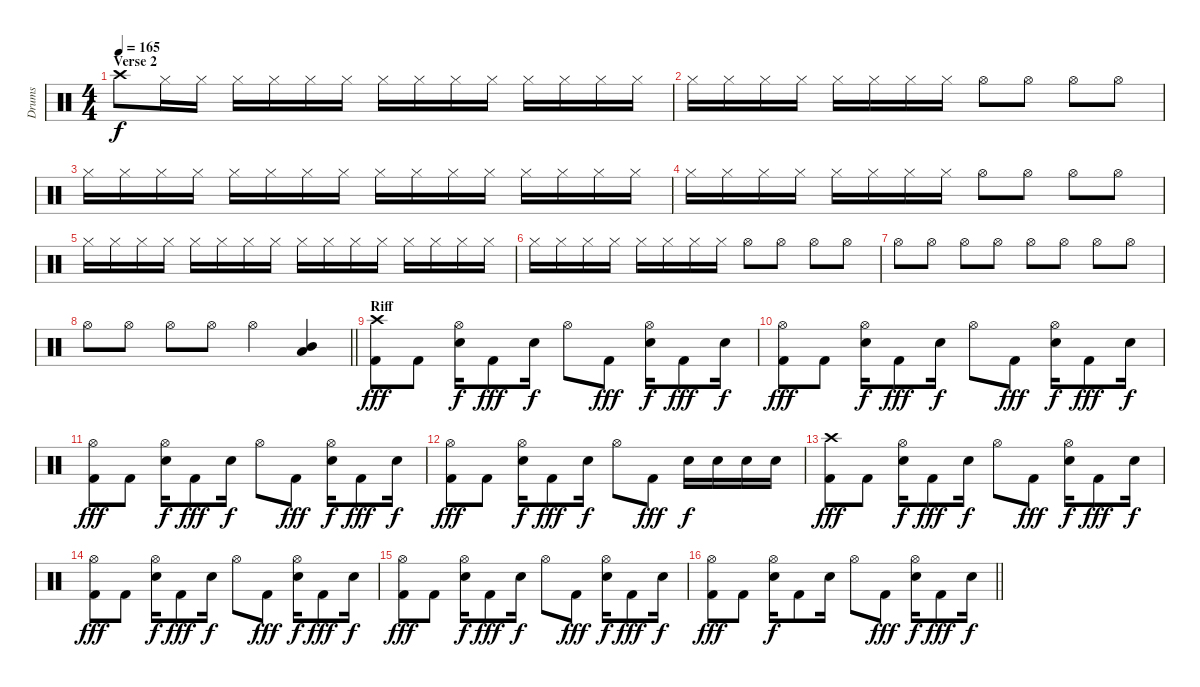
\track ("Drums" "Drums") {instrument percussion}
\staff {score}
\articulation defaults
\ts (4 4)
\section ("" "Verse 2")
\tempo 165
\clef neutral
\ks c "Crash high (hit)".8{dy f} "Hi-Hat (closed)".16 "Hi-Hat (closed)".16 "Hi-Hat (closed)".16 "Hi-Hat (closed)".16 "Hi-Hat (closed)".16 "Hi-Hat (closed)".16 "Hi-Hat (closed)".16 "Hi-Hat (closed)".16 "Hi-Hat (closed)".16 "Hi-Hat (closed)".16 "Hi-Hat (closed)".16 "Hi-Hat (closed)".16 "Hi-Hat (closed)".16 "Hi-Hat (closed)".16
|
"Hi-Hat (closed)".16 "Hi-Hat (closed)".16 "Hi-Hat (closed)".16 "Hi-Hat (closed)".16 "Hi-Hat (closed)".16 "Hi-Hat (closed)".16 "Hi-Hat (closed)".16 "Hi-Hat (closed)".16 "Hi-Hat (open)".8 "Hi-Hat (open)".8 "Hi-Hat (open)".8 "Hi-Hat (open)".8 |
"Hi-Hat (closed)".16 "Hi-Hat (closed)".16 "Hi-Hat (closed)".16 "Hi-Hat (closed)".16 "Hi-Hat (closed)".16 "Hi-Hat (closed)".16 "Hi-Hat (closed)".16 "Hi-Hat (closed)".16 "Hi-Hat (closed)".16 "Hi-Hat (closed)".16 "Hi-Hat (closed)".16 "Hi-Hat (closed)".16 "Hi-Hat (closed)".16 "Hi-Hat (closed)".16 "Hi-Hat (closed)".16 "Hi-Hat (closed)".16 |
"Hi-Hat (closed)".16 "Hi-Hat (closed)".16 "Hi-Hat (closed)".16 "Hi-Hat (closed)".16 "Hi-Hat (closed)".16 "Hi-Hat (closed)".16 "Hi-Hat (closed)".16 "Hi-Hat (closed)".16 "Hi-Hat (open)".8 "Hi-Hat (open)".8 "Hi-Hat (open)".8 "Hi-Hat (open)".8 |
"Hi-Hat (closed)".16 "Hi-Hat (closed)".16 "Hi-Hat (closed)".16 "Hi-Hat (closed)".16 "Hi-Hat (closed)".16 "Hi-Hat (closed)".16 "Hi-Hat (closed)".16 "Hi-Hat (closed)".16 "Hi-Hat (closed)".16 "Hi-Hat (closed)".16 "Hi-Hat (closed)".16 "Hi-Hat (closed)".16 "Hi-Hat (closed)".16 "Hi-Hat (closed)".16 "Hi-Hat (closed)".16 "Hi-Hat (closed)".16 |
"Hi-Hat (closed)".16 "Hi-Hat (closed)".16 "Hi-Hat (closed)".16 "Hi-Hat (closed)".16 "Hi-Hat (closed)".16 "Hi-Hat (closed)".16 "Hi-Hat (closed)".16 "Hi-Hat (closed)".16 "Hi-Hat (open)".8 "Hi-Hat (open)".8 "Hi-Hat (open)".8 "Hi-Hat (open)".8 |
"Hi-Hat (open)".8 "Hi-Hat (open)".8 "Hi-Hat (open)".8 "Hi-Hat (open)".8 "Hi-Hat (open)".8 "Hi-Hat (open)".8 "Hi-Hat (open)".8 "Hi-Hat (open)".8 |
\barLineRight lightlight "Hi-Hat (open)".8 "Hi-Hat (open)".8 "Hi-Hat (open)".8 "Hi-Hat (open)".8 "Hi-Hat (open)".4
("Mid Tom (hit)" "Low Floor Tom (hit)").4 |
\section ("" "Riff")
("Crash high (hit)" "Kick (hit) 2").8{dy fff} "Kick (hit) 2".8 ("Hi-Hat (open)" "Snare (hit) 2").16{dy f} "Kick (hit) 2".8{dy fff} "Snare (hit) 2".16{dy f} "Hi-Hat (open)".8 "Kick (hit) 2".8{dy fff} ("Hi-Hat (open)" "Snare (hit) 2").16{dy f} "Kick (hit) 2".8{dy fff} "Snare (hit) 2".16{dy f} |
("Hi-Hat (open)" "Kick (hit) 2").8{dy fff} "Kick (hit) 2".8 ("Hi-Hat (open)" "Snare (hit) 2").16{dy f} "Kick (hit) 2".8{dy fff} "Snare (hit) 2".16{dy f} "Hi-Hat (open)".8 "Kick (hit) 2".8{dy fff} ("Hi-Hat (open)" "Snare (hit) 2").16{dy f} "Kick (hit) 2".8{dy fff} "Snare (hit) 2".16{dy f} |
("Hi-Hat (open)" "Kick (hit) 2").8{dy fff} "Kick (hit) 2".8 ("Hi-Hat (open)" "Snare (hit) 2").16{dy f} "Kick (hit) 2".8{dy fff} "Snare (hit) 2".16{dy f} "Hi-Hat (open)".8 "Kick (hit) 2".8{dy fff} ("Hi-Hat (open)" "Snare (hit) 2").16{dy f} "Kick (hit) 2".8{dy fff} "Snare (hit) 2".16{dy f} |
("Hi-Hat (open)" "Kick (hit) 2").8{dy fff} "Kick (hit) 2".8 ("Hi-Hat (open)" "Snare (hit) 2").16{dy f} "Kick (hit) 2".8{dy fff} "Snare (hit) 2".16{dy f} "Hi-Hat (open)".8 "Kick (hit) 2".8{dy fff} "Snare (hit) 2".16{dy f} "Snare (hit) 2".16 "Snare (hit) 2".16 "Snare (hit) 2".16 |
("Crash high (hit)" "Kick (hit) 2").8{dy fff} "Kick (hit) 2".8 ("Hi-Hat (open)" "Snare (hit) 2").16{dy f} "Kick (hit) 2".8{dy fff} "Snare (hit) 2".16{dy f} "Hi-Hat (open)".8 "Kick (hit) 2".8{dy fff} ("Hi-Hat (open)" "Snare (hit) 2").16{dy f} "Kick (hit) 2".8{dy fff} "Snare (hit) 2".16{dy f} |
("Hi-Hat (open)" "Kick (hit) 2").8{dy fff} "Kick (hit) 2".8 ("Hi-Hat (open)" "Snare (hit) 2").16{dy f} "Kick (hit) 2".8{dy fff} "Snare (hit) 2".16{dy f} "Hi-Hat (open)".8 "Kick (hit) 2".8{dy fff} ("Hi-Hat (open)" "Snare (hit) 2").16{dy f} "Kick (hit) 2".8{dy fff} "Snare (hit) 2".16{dy f} |
("Hi-Hat (open)" "Kick (hit) 2").8{dy fff} "Kick (hit) 2".8 ("Hi-Hat (open)" "Snare (hit) 2").16{dy f} "Kick (hit) 2".8{dy fff} "Snare (hit) 2".16{dy f} "Hi-Hat (open)".8 "Kick (hit) 2".8{dy fff} ("Hi-Hat (open)" "Snare (hit) 2").16{dy f} "Kick (hit) 2".8{dy fff} "Snare (hit) 2".16{dy f} |
\barLineRight lightlight
("Hi-Hat (open)" "Kick (hit) 2").8{dy fff} "Kick (hit) 2".8 ("Hi-Hat (open)" "Snare (hit) 2").16{dy f} "Kick (hit) 2".8 "Snare (hit) 2".16 "Hi-Hat (open)".8 "Kick (hit) 2".8{dy fff} ("Hi-Hat (open)" "Snare (hit) 2").16{dy f} "Kick (hit) 2".8{dy fff} "Snare (hit) 2".16{dy f}
